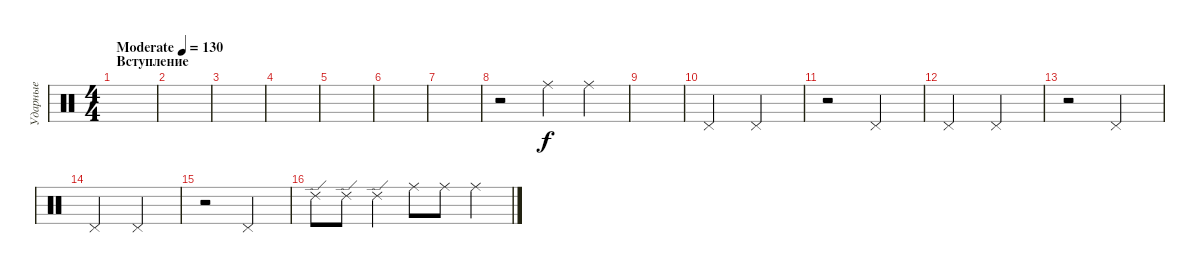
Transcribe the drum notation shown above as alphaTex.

\track ("Ударные" "Ударные") {instrument percussion}
\staff {score}
\articulation defaults
\ts (4 4)
\section ("" "Вступление")
\tempo (130 "Moderate")
\clef neutral
\ks c
|
|
|
|
|
|
|
r.2 "Ride (middle)".4 "Ride (middle)".4 |
|
"Pedal Hi-Hat (hit)".2 "Pedal Hi-Hat (hit)".2 |
r.2 "Pedal Hi-Hat (hit)".2 |
"Pedal Hi-Hat (hit)".2 "Pedal Hi-Hat (hit)".2 |
r.2 "Pedal Hi-Hat (hit)".2 |
"Pedal Hi-Hat (hit)".2 "Pedal Hi-Hat (hit)".2 |
r.2 "Pedal Hi-Hat (hit)".2 |
"Ride (edge) 2".8 "Ride (edge) 2".8 "Ride (edge) 2".4 "Ride (middle)".8 "Ride (middle)".8 "Ride (middle)".4
